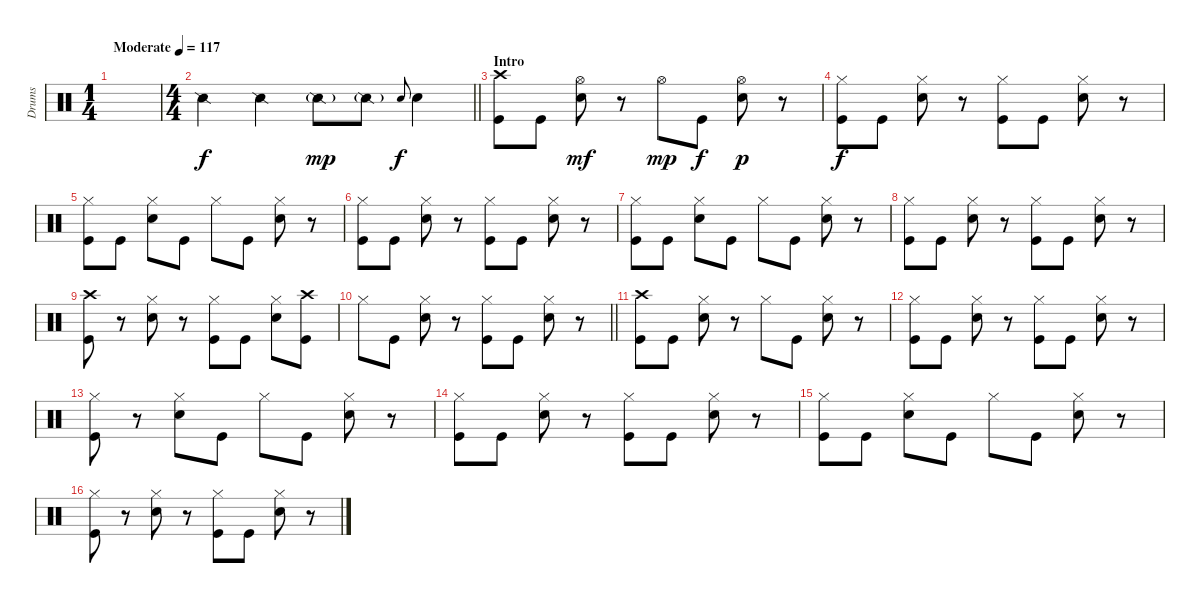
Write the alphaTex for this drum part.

\track ("Drums" "Drums") {instrument percussion}
\staff {score}
\articulation defaults
\ts (1 4)
\tempo (117 "Moderate")
\clef neutral
\ks c
|
\ts (4 4)
\barLineRight lightlight "Snare (side stick) 2".4 "Snare (side stick) 2".4 "Snare (side stick) 2"{g}.8{dy mp} "Snare (side stick) 2"{g}.8 "Snare (hit) 2".8{gr onbeat dy f} "Snare (hit) 2".4
|
\section ("" "Intro")
("Crash high (hit)" "Kick (hit)").8 "Kick (hit)".8 ("Hi-Hat (open)" "Snare (hit) 2").8{dy mf} r.8 "Hi-Hat (open)".8{dy mp} "Kick (hit)".8{dy f} ("Hi-Hat (open)" "Snare (hit) 2").8{dy p} r.8 |
("Hi-Hat (closed)" "Kick (hit)").8{dy f} "Kick (hit)".8 ("Hi-Hat (closed)" "Snare (hit) 2").8 r.8 ("Hi-Hat (closed)" "Kick (hit)").8 "Kick (hit)".8 ("Hi-Hat (closed)" "Snare (hit) 2").8 r.8 |
("Hi-Hat (closed)" "Kick (hit)").8 "Kick (hit)".8 ("Hi-Hat (closed)" "Snare (hit) 2").8 "Kick (hit)".8 "Hi-Hat (closed)".8 "Kick (hit)".8 ("Hi-Hat (closed)" "Snare (hit) 2").8 r.8 |
("Hi-Hat (closed)" "Kick (hit)").8 "Kick (hit)".8 ("Hi-Hat (closed)" "Snare (hit) 2").8 r.8 ("Hi-Hat (closed)" "Kick (hit)").8 "Kick (hit)".8 ("Hi-Hat (closed)" "Snare (hit) 2").8 r.8 |
("Hi-Hat (closed)" "Kick (hit)").8 "Kick (hit)".8 ("Hi-Hat (closed)" "Snare (hit) 2").8 "Kick (hit)".8 "Hi-Hat (closed)".8 "Kick (hit)".8 ("Hi-Hat (closed)" "Snare (hit) 2").8 r.8 |
("Hi-Hat (closed)" "Kick (hit)").8 "Kick (hit)".8 ("Hi-Hat (closed)" "Snare (hit) 2").8 r.8 ("Hi-Hat (closed)" "Kick (hit)").8 "Kick (hit)".8 ("Hi-Hat (closed)" "Snare (hit) 2").8 r.8 |
("Crash high (hit)" "Kick (hit)").8 r.8 ("Hi-Hat (closed)" "Snare (hit) 2").8 r.8 ("Hi-Hat (closed)" "Kick (hit)").8 "Kick (hit)".8 ("Hi-Hat (closed)" "Snare (hit) 2").8 ("Crash high (hit)" "Kick (hit)").8 |
\barLineRight lightlight "Hi-Hat (closed)".8 "Kick (hit)".8
("Hi-Hat (closed)" "Snare (hit) 2").8 r.8 ("Hi-Hat (closed)" "Kick (hit)").8 "Kick (hit)".8 ("Hi-Hat (closed)" "Snare (hit) 2").8 r.8 |
("Crash high (hit)" "Kick (hit)").8 "Kick (hit)".8 ("Hi-Hat (closed)" "Snare (hit) 2").8 r.8 "Hi-Hat (closed)".8 "Kick (hit)".8 ("Hi-Hat (closed)" "Snare (hit) 2").8 r.8 |
("Hi-Hat (closed)" "Kick (hit)").8 "Kick (hit)".8 ("Hi-Hat (closed)" "Snare (hit) 2").8 r.8 ("Hi-Hat (closed)" "Kick (hit)").8 "Kick (hit)".8 ("Hi-Hat (closed)" "Snare (hit) 2").8 r.8 |
("Hi-Hat (closed)" "Kick (hit)").8 r.8 ("Hi-Hat (closed)" "Snare (hit) 2").8 "Kick (hit)".8 "Hi-Hat (closed)".8 "Kick (hit)".8 ("Hi-Hat (closed)" "Snare (hit) 2").8 r.8 |
("Hi-Hat (closed)" "Kick (hit)").8 "Kick (hit)".8 ("Hi-Hat (closed)" "Snare (hit) 2").8 r.8 ("Hi-Hat (closed)" "Kick (hit)").8 "Kick (hit)".8 ("Hi-Hat (closed)" "Snare (hit) 2").8 r.8 |
("Hi-Hat (closed)" "Kick (hit)").8 "Kick (hit)".8 ("Hi-Hat (closed)" "Snare (hit) 2").8 "Kick (hit)".8 "Hi-Hat (closed)".8 "Kick (hit)".8 ("Hi-Hat (closed)" "Snare (hit) 2").8 r.8 |
("Hi-Hat (closed)" "Kick (hit)").8 r.8 ("Hi-Hat (closed)" "Snare (hit) 2").8 r.8 ("Hi-Hat (closed)" "Kick (hit)").8 "Kick (hit)".8 ("Hi-Hat (closed)" "Snare (hit) 2").8 r.8
